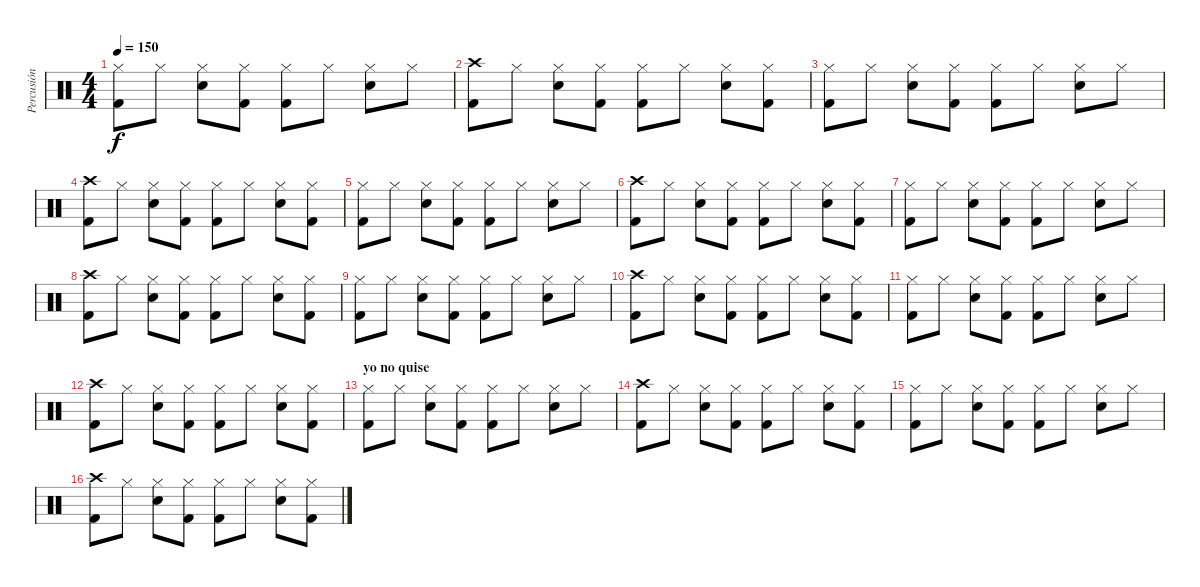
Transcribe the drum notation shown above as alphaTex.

\track ("Percusión" "Percusión") {instrument percussion}
\staff {score}
\articulation defaults
\ts (4 4)
\tempo 150
\clef neutral
\ks c
("Kick (hit) 2" "Hi-Hat (closed)").8{dy f} "Hi-Hat (closed)".8 ("Hi-Hat (closed)" "Electric Snare (hit)").8 ("Kick (hit) 2" "Hi-Hat (closed)").8 ("Kick (hit) 2" "Hi-Hat (closed)").8 "Hi-Hat (closed)".8 ("Hi-Hat (closed)" "Electric Snare (hit)").8 "Hi-Hat (closed)".8 |
("Kick (hit) 2" "Crash high (hit)").8 "Hi-Hat (closed)".8 ("Hi-Hat (closed)" "Electric Snare (hit)").8 ("Kick (hit) 2" "Hi-Hat (closed)").8 ("Kick (hit) 2" "Hi-Hat (closed)").8 "Hi-Hat (closed)".8 ("Hi-Hat (closed)" "Electric Snare (hit)").8 ("Kick (hit) 2" "Hi-Hat (closed)").8 |
("Kick (hit) 2" "Hi-Hat (closed)").8 "Hi-Hat (closed)".8 ("Hi-Hat (closed)" "Electric Snare (hit)").8 ("Kick (hit) 2" "Hi-Hat (closed)").8 ("Kick (hit) 2" "Hi-Hat (closed)").8 "Hi-Hat (closed)".8 ("Hi-Hat (closed)" "Electric Snare (hit)").8 "Hi-Hat (closed)".8 |
("Kick (hit) 2" "Crash high (hit)").8 "Hi-Hat (closed)".8 ("Hi-Hat (closed)" "Electric Snare (hit)").8 ("Kick (hit) 2" "Hi-Hat (closed)").8 ("Kick (hit) 2" "Hi-Hat (closed)").8 "Hi-Hat (closed)".8 ("Hi-Hat (closed)" "Electric Snare (hit)").8 ("Kick (hit) 2" "Hi-Hat (closed)").8 |
("Kick (hit) 2" "Hi-Hat (closed)").8 "Hi-Hat (closed)".8 ("Hi-Hat (closed)" "Electric Snare (hit)").8 ("Kick (hit) 2" "Hi-Hat (closed)").8 ("Kick (hit) 2" "Hi-Hat (closed)").8 "Hi-Hat (closed)".8 ("Hi-Hat (closed)" "Electric Snare (hit)").8 "Hi-Hat (closed)".8 |
("Kick (hit) 2" "Crash high (hit)").8 "Hi-Hat (closed)".8 ("Hi-Hat (closed)" "Electric Snare (hit)").8 ("Kick (hit) 2" "Hi-Hat (closed)").8 ("Kick (hit) 2" "Hi-Hat (closed)").8 "Hi-Hat (closed)".8 ("Hi-Hat (closed)" "Electric Snare (hit)").8 ("Kick (hit) 2" "Hi-Hat (closed)").8 |
("Kick (hit) 2" "Hi-Hat (closed)").8 "Hi-Hat (closed)".8 ("Hi-Hat (closed)" "Electric Snare (hit)").8 ("Kick (hit) 2" "Hi-Hat (closed)").8 ("Kick (hit) 2" "Hi-Hat (closed)").8 "Hi-Hat (closed)".8 ("Hi-Hat (closed)" "Electric Snare (hit)").8 "Hi-Hat (closed)".8 |
("Kick (hit) 2" "Crash high (hit)").8 "Hi-Hat (closed)".8 ("Hi-Hat (closed)" "Electric Snare (hit)").8 ("Kick (hit) 2" "Hi-Hat (closed)").8 ("Kick (hit) 2" "Hi-Hat (closed)").8 "Hi-Hat (closed)".8 ("Hi-Hat (closed)" "Electric Snare (hit)").8 ("Kick (hit) 2" "Hi-Hat (closed)").8 |
("Kick (hit) 2" "Hi-Hat (closed)").8 "Hi-Hat (closed)".8 ("Hi-Hat (closed)" "Electric Snare (hit)").8 ("Kick (hit) 2" "Hi-Hat (closed)").8 ("Kick (hit) 2" "Hi-Hat (closed)").8 "Hi-Hat (closed)".8 ("Hi-Hat (closed)" "Electric Snare (hit)").8 "Hi-Hat (closed)".8 |
("Kick (hit) 2" "Crash high (hit)").8 "Hi-Hat (closed)".8 ("Hi-Hat (closed)" "Electric Snare (hit)").8 ("Kick (hit) 2" "Hi-Hat (closed)").8 ("Kick (hit) 2" "Hi-Hat (closed)").8 "Hi-Hat (closed)".8 ("Hi-Hat (closed)" "Electric Snare (hit)").8 ("Kick (hit) 2" "Hi-Hat (closed)").8 |
("Kick (hit) 2" "Hi-Hat (closed)").8 "Hi-Hat (closed)".8 ("Hi-Hat (closed)" "Electric Snare (hit)").8 ("Kick (hit) 2" "Hi-Hat (closed)").8 ("Kick (hit) 2" "Hi-Hat (closed)").8 "Hi-Hat (closed)".8 ("Hi-Hat (closed)" "Electric Snare (hit)").8 "Hi-Hat (closed)".8 |
("Kick (hit) 2" "Crash high (hit)").8 "Hi-Hat (closed)".8 ("Hi-Hat (closed)" "Electric Snare (hit)").8 ("Kick (hit) 2" "Hi-Hat (closed)").8 ("Kick (hit) 2" "Hi-Hat (closed)").8 "Hi-Hat (closed)".8 ("Hi-Hat (closed)" "Electric Snare (hit)").8 ("Kick (hit) 2" "Hi-Hat (closed)").8 |
\section ("" "yo no quise")
("Kick (hit) 2" "Hi-Hat (closed)").8 "Hi-Hat (closed)".8 ("Hi-Hat (closed)" "Electric Snare (hit)").8 ("Kick (hit) 2" "Hi-Hat (closed)").8 ("Kick (hit) 2" "Hi-Hat (closed)").8 "Hi-Hat (closed)".8 ("Hi-Hat (closed)" "Electric Snare (hit)").8 "Hi-Hat (closed)".8 |
("Kick (hit) 2" "Crash high (hit)").8 "Hi-Hat (closed)".8 ("Hi-Hat (closed)" "Electric Snare (hit)").8 ("Kick (hit) 2" "Hi-Hat (closed)").8 ("Kick (hit) 2" "Hi-Hat (closed)").8 "Hi-Hat (closed)".8 ("Hi-Hat (closed)" "Electric Snare (hit)").8 ("Kick (hit) 2" "Hi-Hat (closed)").8 |
("Kick (hit) 2" "Hi-Hat (closed)").8 "Hi-Hat (closed)".8 ("Hi-Hat (closed)" "Electric Snare (hit)").8 ("Kick (hit) 2" "Hi-Hat (closed)").8 ("Kick (hit) 2" "Hi-Hat (closed)").8 "Hi-Hat (closed)".8 ("Hi-Hat (closed)" "Electric Snare (hit)").8 "Hi-Hat (closed)".8 |
("Kick (hit) 2" "Crash high (hit)").8 "Hi-Hat (closed)".8 ("Hi-Hat (closed)" "Electric Snare (hit)").8 ("Kick (hit) 2" "Hi-Hat (closed)").8 ("Kick (hit) 2" "Hi-Hat (closed)").8 "Hi-Hat (closed)".8 ("Hi-Hat (closed)" "Electric Snare (hit)").8 ("Kick (hit) 2" "Hi-Hat (closed)").8
